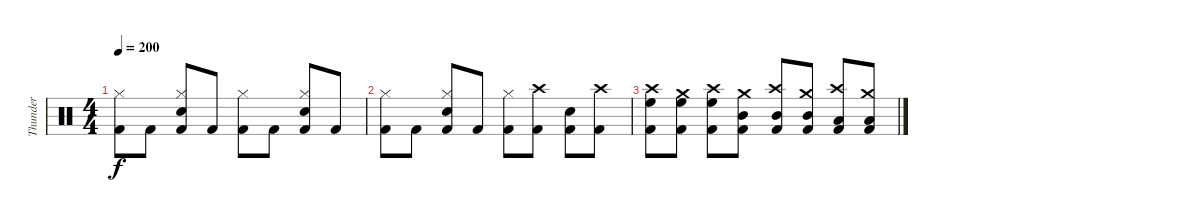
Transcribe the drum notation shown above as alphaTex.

\track ("Thunder" "Thunder") {instrument percussion}
\staff {score}
\articulation defaults
\ts (4 4)
\tempo 200
\clef neutral
\ks c
("Kick (hit) 2" "Hi-Hat (closed)").8{dy f} "Kick (hit) 2".8 ("Kick (hit) 2" "Hi-Hat (closed)" "Snare (hit) 2").8 "Kick (hit) 2".8 ("Kick (hit) 2" "Hi-Hat (closed)").8 "Kick (hit) 2".8 ("Kick (hit) 2" "Hi-Hat (closed)" "Snare (hit) 2").8 "Kick (hit) 2".8 |
("Kick (hit) 2" "Hi-Hat (closed)").8 "Kick (hit) 2".8 ("Kick (hit) 2" "Hi-Hat (closed)" "Snare (hit) 2").8 "Kick (hit) 2".8 ("Kick (hit) 2" "Hi-Hat (closed)").8 ("Kick (hit) 2" "Crash high (hit)").8 ("Kick (hit) 2" "Snare (hit) 2").8 ("Kick (hit) 2" "Crash high (hit)").8 |
("Kick (hit) 2" "Crash high (hit)" "High Floor Tom (hit)").8 ("Kick (hit) 2" "Crash medium (hit)" "High Floor Tom (hit)").8 ("Kick (hit) 2" "Crash high (hit)" "High Floor Tom (hit)").8 ("Kick (hit) 2" "Crash medium (hit)" "Mid Tom (hit)").8 ("Kick (hit) 2" "Crash high (hit)" "Mid Tom (hit)").8 ("Kick (hit) 2" "Crash medium (hit)" "Mid Tom (hit)").8 ("Kick (hit) 2" "Crash high (hit)" "Low Floor Tom (hit)").8 ("Kick (hit) 2" "Crash medium (hit)" "Low Floor Tom (hit)").8
